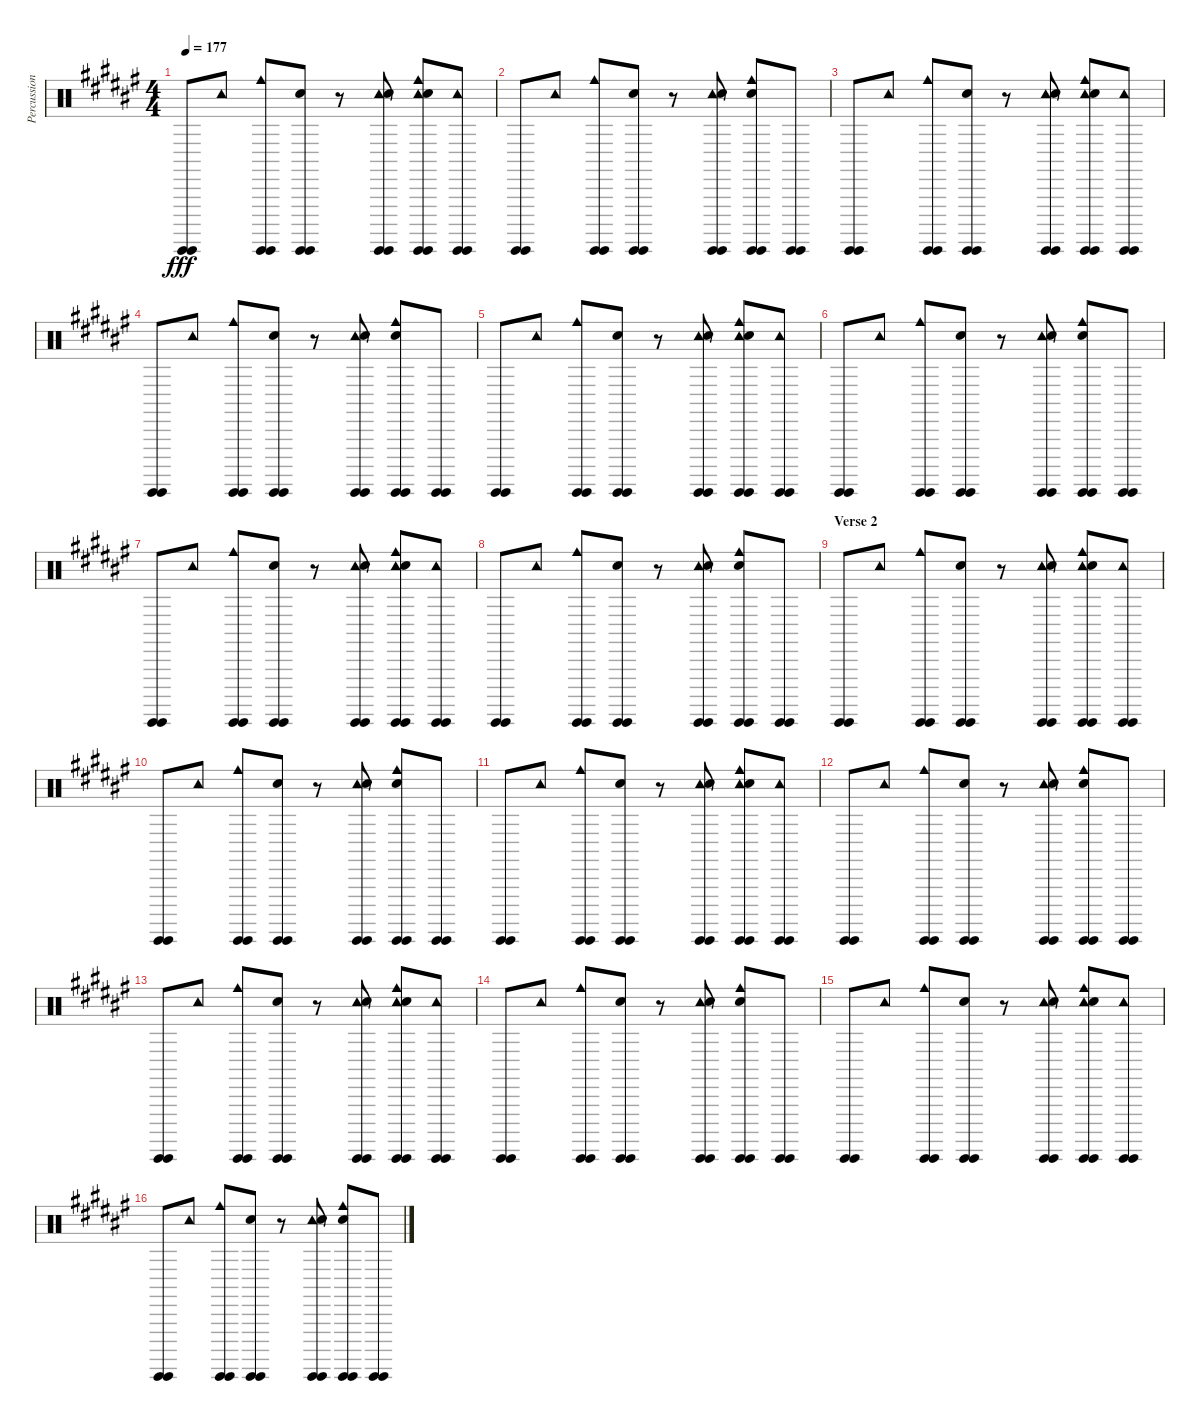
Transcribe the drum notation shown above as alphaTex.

\track ("Percussion" "Percussion") {instrument percussion}
\staff {score}
\articulation defaults
\ts (4 4)
\tempo 177
\clef neutral
\ks d#minor
("Guiro (hit)" "Guiro (hit)").8{dy fff} "Tambourine (hit)".8 ("Cowbell medium (hit)" "Guiro (hit)" "Guiro (hit)").8 ("Guiro (hit)" "Guiro (hit)" "Hand Clap (hit)").8 r.8 ("Tambourine (hit)" "Guiro (hit)" "Guiro (hit)" "Hand Clap (hit)").8 ("Cowbell medium (hit)" "Tambourine (hit)" "Guiro (hit)" "Guiro (hit)" "Hand Clap (hit)").8 ("Tambourine (hit)" "Guiro (hit)" "Guiro (hit)").8 |
("Guiro (hit)" "Guiro (hit)").8 "Tambourine (hit)".8 ("Cowbell medium (hit)" "Guiro (hit)" "Guiro (hit)").8 ("Guiro (hit)" "Guiro (hit)" "Hand Clap (hit)").8 r.8 ("Tambourine (hit)" "Guiro (hit)" "Guiro (hit)" "Hand Clap (hit)").8 ("Cowbell medium (hit)" "Guiro (hit)" "Guiro (hit)" "Hand Clap (hit)").8 ("Guiro (hit)" "Guiro (hit)").8 |
("Guiro (hit)" "Guiro (hit)").8 "Tambourine (hit)".8 ("Cowbell medium (hit)" "Guiro (hit)" "Guiro (hit)").8 ("Guiro (hit)" "Guiro (hit)" "Hand Clap (hit)").8 r.8 ("Tambourine (hit)" "Guiro (hit)" "Guiro (hit)" "Hand Clap (hit)").8 ("Cowbell medium (hit)" "Tambourine (hit)" "Guiro (hit)" "Guiro (hit)" "Hand Clap (hit)").8 ("Tambourine (hit)" "Guiro (hit)" "Guiro (hit)").8 |
("Guiro (hit)" "Guiro (hit)").8 "Tambourine (hit)".8 ("Cowbell medium (hit)" "Guiro (hit)" "Guiro (hit)").8 ("Guiro (hit)" "Guiro (hit)" "Hand Clap (hit)").8 r.8 ("Tambourine (hit)" "Guiro (hit)" "Guiro (hit)" "Hand Clap (hit)").8 ("Cowbell medium (hit)" "Guiro (hit)" "Guiro (hit)" "Hand Clap (hit)").8 ("Guiro (hit)" "Guiro (hit)").8 |
("Guiro (hit)" "Guiro (hit)").8 "Tambourine (hit)".8 ("Cowbell medium (hit)" "Guiro (hit)" "Guiro (hit)").8 ("Guiro (hit)" "Guiro (hit)" "Hand Clap (hit)").8 r.8 ("Tambourine (hit)" "Guiro (hit)" "Guiro (hit)" "Hand Clap (hit)").8 ("Cowbell medium (hit)" "Tambourine (hit)" "Guiro (hit)" "Guiro (hit)" "Hand Clap (hit)").8 ("Tambourine (hit)" "Guiro (hit)" "Guiro (hit)").8 |
("Guiro (hit)" "Guiro (hit)").8 "Tambourine (hit)".8 ("Cowbell medium (hit)" "Guiro (hit)" "Guiro (hit)").8 ("Guiro (hit)" "Guiro (hit)" "Hand Clap (hit)").8 r.8 ("Tambourine (hit)" "Guiro (hit)" "Guiro (hit)" "Hand Clap (hit)").8 ("Cowbell medium (hit)" "Guiro (hit)" "Guiro (hit)" "Hand Clap (hit)").8 ("Guiro (hit)" "Guiro (hit)").8 |
("Guiro (hit)" "Guiro (hit)").8 "Tambourine (hit)".8 ("Cowbell medium (hit)" "Guiro (hit)" "Guiro (hit)").8 ("Guiro (hit)" "Guiro (hit)" "Hand Clap (hit)").8 r.8 ("Tambourine (hit)" "Guiro (hit)" "Guiro (hit)" "Hand Clap (hit)").8 ("Cowbell medium (hit)" "Tambourine (hit)" "Guiro (hit)" "Guiro (hit)" "Hand Clap (hit)").8 ("Tambourine (hit)" "Guiro (hit)" "Guiro (hit)").8 |
("Guiro (hit)" "Guiro (hit)").8 "Tambourine (hit)".8 ("Cowbell medium (hit)" "Guiro (hit)" "Guiro (hit)").8 ("Guiro (hit)" "Guiro (hit)" "Hand Clap (hit)").8 r.8 ("Tambourine (hit)" "Guiro (hit)" "Guiro (hit)" "Hand Clap (hit)").8 ("Cowbell medium (hit)" "Guiro (hit)" "Guiro (hit)" "Hand Clap (hit)").8 ("Guiro (hit)" "Guiro (hit)").8 |
\section ("" "Verse 2")
("Guiro (hit)" "Guiro (hit)").8 "Tambourine (hit)".8 ("Cowbell medium (hit)" "Guiro (hit)" "Guiro (hit)").8 ("Guiro (hit)" "Guiro (hit)" "Hand Clap (hit)").8 r.8 ("Tambourine (hit)" "Guiro (hit)" "Guiro (hit)" "Hand Clap (hit)").8 ("Cowbell medium (hit)" "Tambourine (hit)" "Guiro (hit)" "Guiro (hit)" "Hand Clap (hit)").8 ("Tambourine (hit)" "Guiro (hit)" "Guiro (hit)").8 |
("Guiro (hit)" "Guiro (hit)").8 "Tambourine (hit)".8 ("Cowbell medium (hit)" "Guiro (hit)" "Guiro (hit)").8 ("Guiro (hit)" "Guiro (hit)" "Hand Clap (hit)").8 r.8 ("Tambourine (hit)" "Guiro (hit)" "Guiro (hit)" "Hand Clap (hit)").8 ("Cowbell medium (hit)" "Guiro (hit)" "Guiro (hit)" "Hand Clap (hit)").8 ("Guiro (hit)" "Guiro (hit)").8 |
("Guiro (hit)" "Guiro (hit)").8 "Tambourine (hit)".8 ("Cowbell medium (hit)" "Guiro (hit)" "Guiro (hit)").8 ("Guiro (hit)" "Guiro (hit)" "Hand Clap (hit)").8 r.8 ("Tambourine (hit)" "Guiro (hit)" "Guiro (hit)" "Hand Clap (hit)").8 ("Cowbell medium (hit)" "Tambourine (hit)" "Guiro (hit)" "Guiro (hit)" "Hand Clap (hit)").8 ("Tambourine (hit)" "Guiro (hit)" "Guiro (hit)").8 |
("Guiro (hit)" "Guiro (hit)").8 "Tambourine (hit)".8 ("Cowbell medium (hit)" "Guiro (hit)" "Guiro (hit)").8 ("Guiro (hit)" "Guiro (hit)" "Hand Clap (hit)").8 r.8 ("Tambourine (hit)" "Guiro (hit)" "Guiro (hit)" "Hand Clap (hit)").8 ("Cowbell medium (hit)" "Guiro (hit)" "Guiro (hit)" "Hand Clap (hit)").8 ("Guiro (hit)" "Guiro (hit)").8 |
("Guiro (hit)" "Guiro (hit)").8 "Tambourine (hit)".8 ("Cowbell medium (hit)" "Guiro (hit)" "Guiro (hit)").8 ("Guiro (hit)" "Guiro (hit)" "Hand Clap (hit)").8 r.8 ("Tambourine (hit)" "Guiro (hit)" "Guiro (hit)" "Hand Clap (hit)").8 ("Cowbell medium (hit)" "Tambourine (hit)" "Guiro (hit)" "Guiro (hit)" "Hand Clap (hit)").8 ("Tambourine (hit)" "Guiro (hit)" "Guiro (hit)").8 |
("Guiro (hit)" "Guiro (hit)").8 "Tambourine (hit)".8 ("Cowbell medium (hit)" "Guiro (hit)" "Guiro (hit)").8 ("Guiro (hit)" "Guiro (hit)" "Hand Clap (hit)").8 r.8 ("Tambourine (hit)" "Guiro (hit)" "Guiro (hit)" "Hand Clap (hit)").8 ("Cowbell medium (hit)" "Guiro (hit)" "Guiro (hit)" "Hand Clap (hit)").8 ("Guiro (hit)" "Guiro (hit)").8 |
("Guiro (hit)" "Guiro (hit)").8 "Tambourine (hit)".8 ("Cowbell medium (hit)" "Guiro (hit)" "Guiro (hit)").8 ("Guiro (hit)" "Guiro (hit)" "Hand Clap (hit)").8 r.8 ("Tambourine (hit)" "Guiro (hit)" "Guiro (hit)" "Hand Clap (hit)").8 ("Cowbell medium (hit)" "Tambourine (hit)" "Guiro (hit)" "Guiro (hit)" "Hand Clap (hit)").8 ("Tambourine (hit)" "Guiro (hit)" "Guiro (hit)").8 |
("Guiro (hit)" "Guiro (hit)").8 "Tambourine (hit)".8 ("Cowbell medium (hit)" "Guiro (hit)" "Guiro (hit)").8 ("Guiro (hit)" "Guiro (hit)" "Hand Clap (hit)").8 r.8 ("Tambourine (hit)" "Guiro (hit)" "Guiro (hit)" "Hand Clap (hit)").8 ("Cowbell medium (hit)" "Guiro (hit)" "Guiro (hit)" "Hand Clap (hit)").8 ("Guiro (hit)" "Guiro (hit)").8
